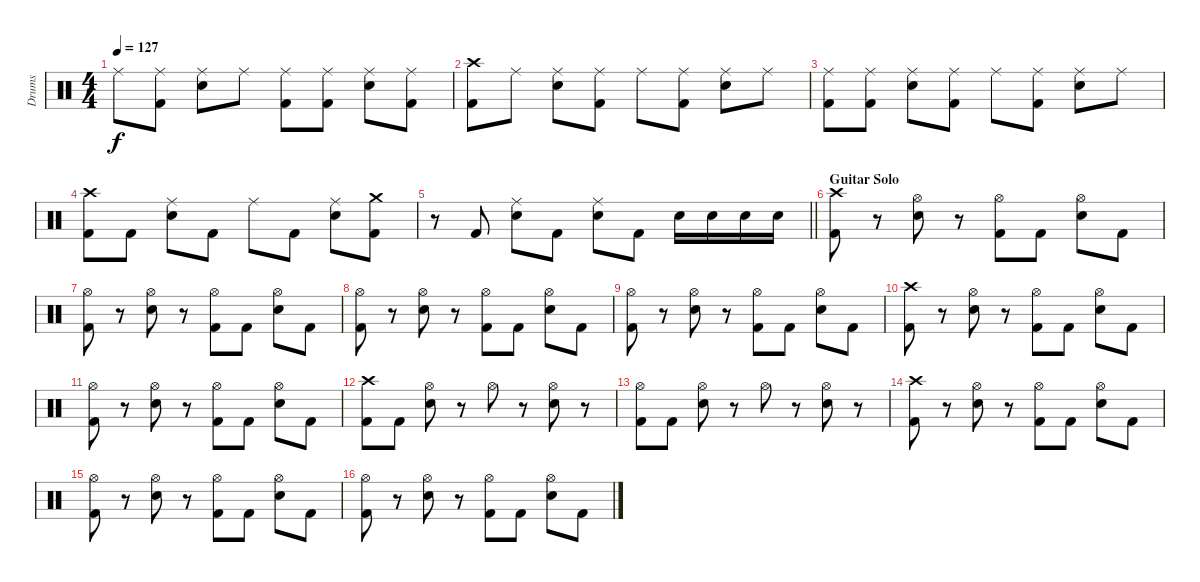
\track ("Drums" "Drums") {instrument percussion}
\staff {score}
\articulation defaults
\ts (4 4)
\tempo 127
\clef neutral
\ks c "Ride (middle)".8{dy f}
("Ride (middle)" "Kick (hit) 2").8 ("Ride (middle)" "Electric Snare (hit)").8 "Ride (middle)".8 ("Ride (middle)" "Kick (hit) 2").8 ("Ride (middle)" "Kick (hit) 2").8 ("Ride (middle)" "Electric Snare (hit)").8 ("Ride (middle)" "Kick (hit) 2").8 |
("Crash high (hit)" "Kick (hit) 2").8 "Ride (middle)".8 ("Ride (middle)" "Electric Snare (hit)").8 ("Ride (middle)" "Kick (hit) 2").8 "Ride (middle)".8 ("Ride (middle)" "Kick (hit) 2").8 ("Ride (middle)" "Electric Snare (hit)").8 "Ride (middle)".8 |
("Ride (middle)" "Kick (hit) 2").8 ("Ride (middle)" "Kick (hit) 2").8 ("Ride (middle)" "Electric Snare (hit)").8 ("Ride (middle)" "Kick (hit) 2").8 "Ride (middle)".8 ("Ride (middle)" "Kick (hit) 2").8 ("Ride (middle)" "Electric Snare (hit)").8 "Ride (middle)".8 |
("Crash high (hit)" "Kick (hit) 2").8 "Kick (hit) 2".8 ("Ride (middle)" "Electric Snare (hit)").8 "Kick (hit) 2".8 "Ride (middle)".8 "Kick (hit) 2".8 ("Ride (middle)" "Electric Snare (hit)").8 ("Crash medium (hit)" "Kick (hit) 2").8 |
\barLineRight lightlight
r.8 "Kick (hit) 2".8 ("Ride (middle)" "Electric Snare (hit)").8 "Kick (hit) 2".8 ("Ride (middle)" "Electric Snare (hit)").8 "Kick (hit) 2".8 "Electric Snare (hit)".16 "Electric Snare (hit)".16 "Electric Snare (hit)".16 "Electric Snare (hit)".16 |
\section ("" "Guitar Solo")
("Crash high (hit)" "Kick (hit) 2").8 r.8 ("Hi-Hat (open)" "Electric Snare (hit)").8 r.8 ("Hi-Hat (open)" "Kick (hit) 2").8 "Kick (hit) 2".8 ("Hi-Hat (open)" "Electric Snare (hit)").8 "Kick (hit) 2".8 |
("Hi-Hat (open)" "Kick (hit) 2").8 r.8 ("Hi-Hat (open)" "Electric Snare (hit)").8 r.8 ("Hi-Hat (open)" "Kick (hit) 2").8 "Kick (hit) 2".8 ("Hi-Hat (open)" "Electric Snare (hit)").8 "Kick (hit) 2".8 |
("Hi-Hat (open)" "Kick (hit) 2").8 r.8 ("Hi-Hat (open)" "Electric Snare (hit)").8 r.8 ("Hi-Hat (open)" "Kick (hit) 2").8 "Kick (hit) 2".8 ("Hi-Hat (open)" "Electric Snare (hit)").8 "Kick (hit) 2".8 |
("Hi-Hat (open)" "Kick (hit) 2").8 r.8 ("Hi-Hat (open)" "Electric Snare (hit)").8 r.8 ("Hi-Hat (open)" "Kick (hit) 2").8 "Kick (hit) 2".8 ("Hi-Hat (open)" "Electric Snare (hit)").8 "Kick (hit) 2".8 |
("Crash high (hit)" "Kick (hit) 2").8 r.8 ("Hi-Hat (open)" "Electric Snare (hit)").8 r.8 ("Hi-Hat (open)" "Kick (hit) 2").8 "Kick (hit) 2".8 ("Hi-Hat (open)" "Electric Snare (hit)").8 "Kick (hit) 2".8 |
("Hi-Hat (open)" "Kick (hit) 2").8 r.8 ("Hi-Hat (open)" "Electric Snare (hit)").8 r.8 ("Hi-Hat (open)" "Kick (hit) 2").8 "Kick (hit) 2".8 ("Hi-Hat (open)" "Electric Snare (hit)").8 "Kick (hit) 2".8 |
("Crash high (hit)" "Kick (hit) 2").8 "Kick (hit) 2".8 ("Hi-Hat (open)" "Electric Snare (hit)").8 r.8 "Hi-Hat (open)".8 r.8 ("Hi-Hat (open)" "Electric Snare (hit)").8 r.8 |
("Hi-Hat (open)" "Kick (hit) 2").8 "Kick (hit) 2".8 ("Hi-Hat (open)" "Electric Snare (hit)").8 r.8 "Hi-Hat (open)".8 r.8 ("Hi-Hat (open)" "Electric Snare (hit)").8 r.8 |
("Crash high (hit)" "Kick (hit) 2").8 r.8 ("Hi-Hat (open)" "Electric Snare (hit)").8 r.8 ("Hi-Hat (open)" "Kick (hit) 2").8 "Kick (hit) 2".8 ("Hi-Hat (open)" "Electric Snare (hit)").8 "Kick (hit) 2".8 |
("Hi-Hat (open)" "Kick (hit) 2").8 r.8 ("Hi-Hat (open)" "Electric Snare (hit)").8 r.8 ("Hi-Hat (open)" "Kick (hit) 2").8 "Kick (hit) 2".8 ("Hi-Hat (open)" "Electric Snare (hit)").8 "Kick (hit) 2".8 |
("Hi-Hat (open)" "Kick (hit) 2").8 r.8 ("Hi-Hat (open)" "Electric Snare (hit)").8 r.8 ("Hi-Hat (open)" "Kick (hit) 2").8 "Kick (hit) 2".8 ("Hi-Hat (open)" "Electric Snare (hit)").8 "Kick (hit) 2".8
